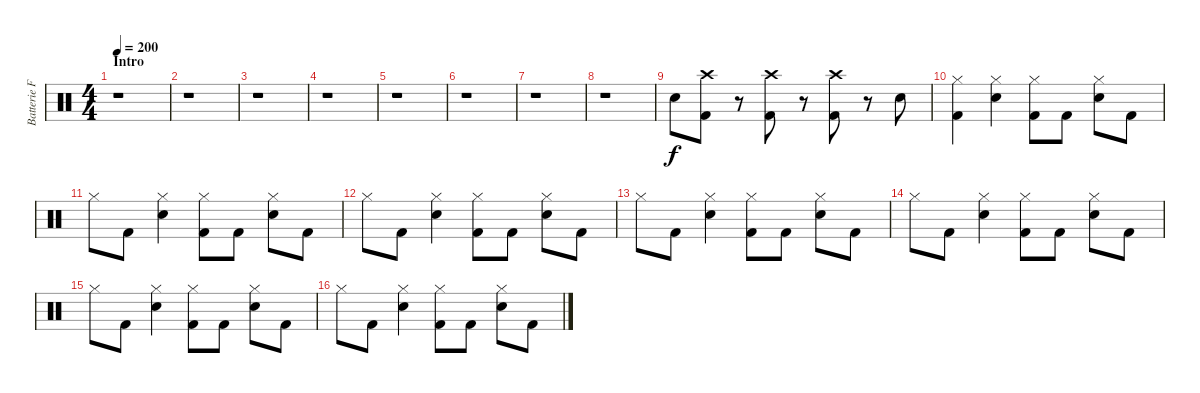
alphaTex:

\track ("Batterie Franck" "Batterie F") {instrument percussion}
\staff {score}
\articulation defaults
\ts (4 4)
\section ("" "Intro")
\tempo 200
\clef neutral
\ks c
r.1{dy f} |
r.1 |
r.1 |
r.1 |
r.1 |
r.1 |
r.1 |
r.1 |
"Snare (hit) 2".8 ("Crash high (hit)" "Kick (hit) 2").8 r.8 ("Crash high (hit)" "Kick (hit) 2").8 r.8 ("Crash high (hit)" "Kick (hit) 2").8 r.8 "Snare (hit) 2".8 |
("Hi-Hat (closed)" "Kick (hit) 2").4 ("Hi-Hat (closed)" "Snare (hit) 2").4 ("Hi-Hat (closed)" "Kick (hit) 2").8 "Kick (hit) 2".8 ("Hi-Hat (closed)" "Snare (hit) 2").8 "Kick (hit) 2".8 |
"Hi-Hat (closed)".8 "Kick (hit) 2".8 ("Hi-Hat (closed)" "Snare (hit) 2").4 ("Hi-Hat (closed)" "Kick (hit) 2").8 "Kick (hit) 2".8 ("Hi-Hat (closed)" "Snare (hit) 2").8 "Kick (hit) 2".8 |
"Hi-Hat (closed)".8 "Kick (hit) 2".8 ("Hi-Hat (closed)" "Snare (hit) 2").4 ("Hi-Hat (closed)" "Kick (hit) 2").8 "Kick (hit) 2".8 ("Hi-Hat (closed)" "Snare (hit) 2").8 "Kick (hit) 2".8 |
"Hi-Hat (closed)".8 "Kick (hit) 2".8 ("Hi-Hat (closed)" "Snare (hit) 2").4 ("Hi-Hat (closed)" "Kick (hit) 2").8 "Kick (hit) 2".8 ("Hi-Hat (closed)" "Snare (hit) 2").8 "Kick (hit) 2".8 |
"Hi-Hat (closed)".8 "Kick (hit) 2".8 ("Hi-Hat (closed)" "Snare (hit) 2").4 ("Hi-Hat (closed)" "Kick (hit) 2").8 "Kick (hit) 2".8 ("Hi-Hat (closed)" "Snare (hit) 2").8 "Kick (hit) 2".8 |
"Hi-Hat (closed)".8 "Kick (hit) 2".8 ("Hi-Hat (closed)" "Snare (hit) 2").4 ("Hi-Hat (closed)" "Kick (hit) 2").8 "Kick (hit) 2".8 ("Hi-Hat (closed)" "Snare (hit) 2").8 "Kick (hit) 2".8 |
"Hi-Hat (closed)".8 "Kick (hit) 2".8 ("Hi-Hat (closed)" "Snare (hit) 2").4 ("Hi-Hat (closed)" "Kick (hit) 2").8 "Kick (hit) 2".8 ("Hi-Hat (closed)" "Snare (hit) 2").8 "Kick (hit) 2".8
